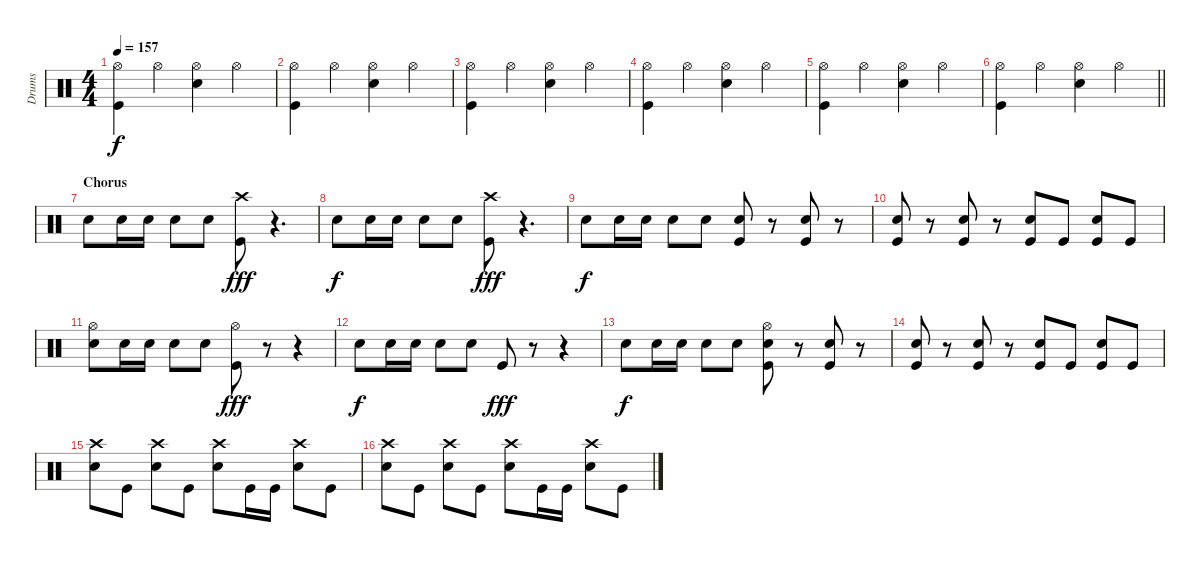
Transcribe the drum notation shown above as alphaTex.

\track ("Drums" "Drums") {instrument percussion}
\staff {score}
\articulation defaults
\ts (4 4)
\tempo 157
\clef neutral
\ks c
("Hi-Hat (open)" "Kick (hit)").4{dy f} "Hi-Hat (open)".4 ("Hi-Hat (open)" "Snare (hit) 2").4 "Hi-Hat (open)".4 |
("Hi-Hat (open)" "Kick (hit)").4 "Hi-Hat (open)".4 ("Hi-Hat (open)" "Snare (hit) 2").4 "Hi-Hat (open)".4 |
("Hi-Hat (open)" "Kick (hit)").4 "Hi-Hat (open)".4 ("Hi-Hat (open)" "Snare (hit) 2").4 "Hi-Hat (open)".4 |
("Hi-Hat (open)" "Kick (hit)").4 "Hi-Hat (open)".4 ("Hi-Hat (open)" "Snare (hit) 2").4 "Hi-Hat (open)".4 |
("Hi-Hat (open)" "Kick (hit)").4 "Hi-Hat (open)".4 ("Hi-Hat (open)" "Snare (hit) 2").4 "Hi-Hat (open)".4 |
\barLineRight lightlight
("Hi-Hat (open)" "Kick (hit)").4 "Hi-Hat (open)".4 ("Hi-Hat (open)" "Snare (hit) 2").4 "Hi-Hat (open)".4 |
\section ("" "Chorus")
"Snare (hit) 2".8 "Snare (hit) 2".16 "Snare (hit) 2".16 "Snare (hit) 2".8 "Snare (hit) 2".8 ("Crash high (hit)" "Kick (hit)").8{dy fff} r.4{d} |
"Snare (hit) 2".8{dy f} "Snare (hit) 2".16 "Snare (hit) 2".16 "Snare (hit) 2".8 "Snare (hit) 2".8 ("Crash high (hit)" "Kick (hit)").8{dy fff} r.4{d} |
"Snare (hit) 2".8{dy f} "Snare (hit) 2".16 "Snare (hit) 2".16 "Snare (hit) 2".8 "Snare (hit) 2".8 ("Kick (hit)" "Snare (hit) 2").8 r.8 ("Kick (hit)" "Snare (hit) 2").8 r.8 |
("Kick (hit)" "Snare (hit) 2").8 r.8 ("Kick (hit)" "Snare (hit) 2").8 r.8 ("Kick (hit)" "Snare (hit) 2").8 "Kick (hit)".8 ("Kick (hit)" "Snare (hit) 2").8 "Kick (hit)".8 |
("Hi-Hat (open)" "Snare (hit) 2").8 "Snare (hit) 2".16 "Snare (hit) 2".16 "Snare (hit) 2".8 "Snare (hit) 2".8 ("Hi-Hat (open)" "Kick (hit)").8{dy fff} r.8 r.4 |
"Snare (hit) 2".8{dy f} "Snare (hit) 2".16 "Snare (hit) 2".16 "Snare (hit) 2".8 "Snare (hit) 2".8 "Kick (hit)".8{dy fff} r.8 r.4 |
"Snare (hit) 2".8{dy f} "Snare (hit) 2".16 "Snare (hit) 2".16 "Snare (hit) 2".8 "Snare (hit) 2".8 ("Hi-Hat (open)" "Kick (hit)" "Snare (hit) 2").8 r.8 ("Kick (hit)" "Snare (hit) 2").8 r.8 |
("Kick (hit)" "Snare (hit) 2").8 r.8 ("Kick (hit)" "Snare (hit) 2").8 r.8 ("Kick (hit)" "Snare (hit) 2").8 "Kick (hit)".8 ("Kick (hit)" "Snare (hit) 2").8 "Kick (hit)".8 |
("Crash high (hit)" "Snare (hit) 2").8 "Kick (hit)".8 ("Crash high (hit)" "Snare (hit) 2").8 "Kick (hit)".8 ("Crash high (hit)" "Snare (hit) 2").8 "Kick (hit)".16 "Kick (hit)".16 ("Crash high (hit)" "Snare (hit) 2").8 "Kick (hit)".8 |
("Crash high (hit)" "Snare (hit) 2").8 "Kick (hit)".8 ("Crash high (hit)" "Snare (hit) 2").8 "Kick (hit)".8 ("Crash high (hit)" "Snare (hit) 2").8 "Kick (hit)".16 "Kick (hit)".16 ("Crash high (hit)" "Snare (hit) 2").8 "Kick (hit)".8
